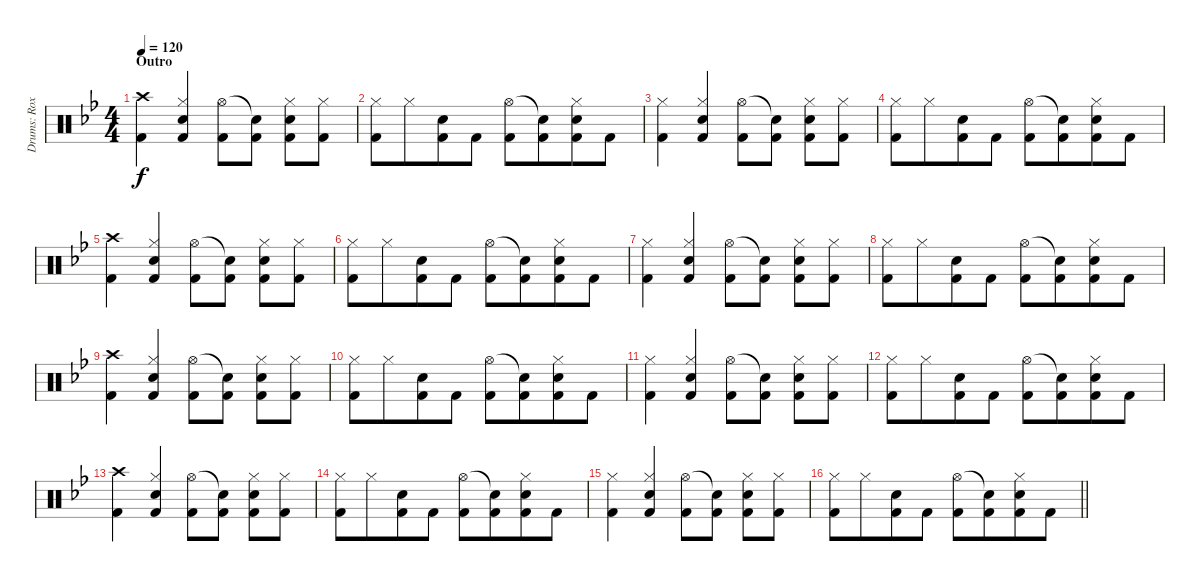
\track ("Drums: Roxy" "Drums: Rox") {instrument percussion}
\staff {score}
\articulation defaults
\ts (4 4)
\section ("" "Outro")
\tempo 120
\clef neutral
\ks bb
("Crash high (hit)" "Kick (hit) 2").4{dy f} ("Hi-Hat (closed)" "Snare (hit) 2" "Kick (hit) 2").4 ("Hi-Hat (open)" "Kick (hit) 2").8 ("Snare (hit)"{t} "Kick (hit) 2").8 ("Hi-Hat (closed)" "Snare (hit) 2" "Kick (hit) 2").8 ("Hi-Hat (closed)" "Kick (hit) 2").8 |
("Hi-Hat (closed)" "Kick (hit) 2").8 "Hi-Hat (closed)".8{beam merge} ("Snare (hit) 2" "Kick (hit) 2").8 "Kick (hit) 2".8 ("Hi-Hat (open)" "Kick (hit) 2").8 ("Snare (hit)"{t} "Kick (hit) 2").8{beam merge} ("Hi-Hat (closed)" "Snare (hit) 2" "Kick (hit) 2").8 "Kick (hit) 2".8 |
("Hi-Hat (closed)" "Kick (hit) 2").4 ("Hi-Hat (closed)" "Snare (hit) 2" "Kick (hit) 2").4 ("Hi-Hat (open)" "Kick (hit) 2").8 ("Snare (hit)"{t} "Kick (hit) 2").8 ("Hi-Hat (closed)" "Snare (hit) 2" "Kick (hit) 2").8 ("Hi-Hat (closed)" "Kick (hit) 2").8 |
("Hi-Hat (closed)" "Kick (hit) 2").8 "Hi-Hat (closed)".8{beam merge} ("Snare (hit) 2" "Kick (hit) 2").8 "Kick (hit) 2".8 ("Hi-Hat (open)" "Kick (hit) 2").8 ("Snare (hit)"{t} "Kick (hit) 2").8{beam merge} ("Hi-Hat (closed)" "Snare (hit) 2" "Kick (hit) 2").8 "Kick (hit) 2".8 |
("Crash high (hit)" "Kick (hit) 2").4 ("Hi-Hat (closed)" "Snare (hit) 2" "Kick (hit) 2").4 ("Hi-Hat (open)" "Kick (hit) 2").8 ("Snare (hit)"{t} "Kick (hit) 2").8 ("Hi-Hat (closed)" "Snare (hit) 2" "Kick (hit) 2").8 ("Hi-Hat (closed)" "Kick (hit) 2").8 |
("Hi-Hat (closed)" "Kick (hit) 2").8 "Hi-Hat (closed)".8{beam merge} ("Snare (hit) 2" "Kick (hit) 2").8 "Kick (hit) 2".8 ("Hi-Hat (open)" "Kick (hit) 2").8 ("Snare (hit)"{t} "Kick (hit) 2").8{beam merge} ("Hi-Hat (closed)" "Snare (hit) 2" "Kick (hit) 2").8 "Kick (hit) 2".8 |
("Hi-Hat (closed)" "Kick (hit) 2").4 ("Hi-Hat (closed)" "Snare (hit) 2" "Kick (hit) 2").4 ("Hi-Hat (open)" "Kick (hit) 2").8 ("Snare (hit)"{t} "Kick (hit) 2").8 ("Hi-Hat (closed)" "Snare (hit) 2" "Kick (hit) 2").8 ("Hi-Hat (closed)" "Kick (hit) 2").8 |
("Hi-Hat (closed)" "Kick (hit) 2").8 "Hi-Hat (closed)".8{beam merge} ("Snare (hit) 2" "Kick (hit) 2").8 "Kick (hit) 2".8 ("Hi-Hat (open)" "Kick (hit) 2").8 ("Snare (hit)"{t} "Kick (hit) 2").8{beam merge} ("Hi-Hat (closed)" "Snare (hit) 2" "Kick (hit) 2").8 "Kick (hit) 2".8 |
("Crash high (hit)" "Kick (hit) 2").4 ("Hi-Hat (closed)" "Snare (hit) 2" "Kick (hit) 2").4 ("Hi-Hat (open)" "Kick (hit) 2").8 ("Snare (hit)"{t} "Kick (hit) 2").8 ("Hi-Hat (closed)" "Snare (hit) 2" "Kick (hit) 2").8 ("Hi-Hat (closed)" "Kick (hit) 2").8 |
("Hi-Hat (closed)" "Kick (hit) 2").8 "Hi-Hat (closed)".8{beam merge} ("Snare (hit) 2" "Kick (hit) 2").8 "Kick (hit) 2".8 ("Hi-Hat (open)" "Kick (hit) 2").8 ("Snare (hit)"{t} "Kick (hit) 2").8{beam merge} ("Hi-Hat (closed)" "Snare (hit) 2" "Kick (hit) 2").8 "Kick (hit) 2".8 |
("Hi-Hat (closed)" "Kick (hit) 2").4 ("Hi-Hat (closed)" "Snare (hit) 2" "Kick (hit) 2").4 ("Hi-Hat (open)" "Kick (hit) 2").8 ("Snare (hit)"{t} "Kick (hit) 2").8 ("Hi-Hat (closed)" "Snare (hit) 2" "Kick (hit) 2").8 ("Hi-Hat (closed)" "Kick (hit) 2").8 |
("Hi-Hat (closed)" "Kick (hit) 2").8 "Hi-Hat (closed)".8{beam merge} ("Snare (hit) 2" "Kick (hit) 2").8 "Kick (hit) 2".8 ("Hi-Hat (open)" "Kick (hit) 2").8 ("Snare (hit)"{t} "Kick (hit) 2").8{beam merge} ("Hi-Hat (closed)" "Snare (hit) 2" "Kick (hit) 2").8 "Kick (hit) 2".8 |
("Crash high (hit)" "Kick (hit) 2").4 ("Hi-Hat (closed)" "Snare (hit) 2" "Kick (hit) 2").4 ("Hi-Hat (open)" "Kick (hit) 2").8 ("Snare (hit)"{t} "Kick (hit) 2").8 ("Hi-Hat (closed)" "Snare (hit) 2" "Kick (hit) 2").8 ("Hi-Hat (closed)" "Kick (hit) 2").8 |
("Hi-Hat (closed)" "Kick (hit) 2").8 "Hi-Hat (closed)".8{beam merge} ("Snare (hit) 2" "Kick (hit) 2").8 "Kick (hit) 2".8 ("Hi-Hat (open)" "Kick (hit) 2").8 ("Snare (hit)"{t} "Kick (hit) 2").8{beam merge} ("Hi-Hat (closed)" "Snare (hit) 2" "Kick (hit) 2").8 "Kick (hit) 2".8 |
("Hi-Hat (closed)" "Kick (hit) 2").4 ("Hi-Hat (closed)" "Snare (hit) 2" "Kick (hit) 2").4 ("Hi-Hat (open)" "Kick (hit) 2").8 ("Snare (hit)"{t} "Kick (hit) 2").8 ("Hi-Hat (closed)" "Snare (hit) 2" "Kick (hit) 2").8 ("Hi-Hat (closed)" "Kick (hit) 2").8 |
\barLineRight lightlight
("Hi-Hat (closed)" "Kick (hit) 2").8 "Hi-Hat (closed)".8{beam merge} ("Snare (hit) 2" "Kick (hit) 2").8 "Kick (hit) 2".8 ("Hi-Hat (open)" "Kick (hit) 2").8 ("Snare (hit)"{t} "Kick (hit) 2").8{beam merge} ("Hi-Hat (closed)" "Snare (hit) 2" "Kick (hit) 2").8 "Kick (hit) 2".8
